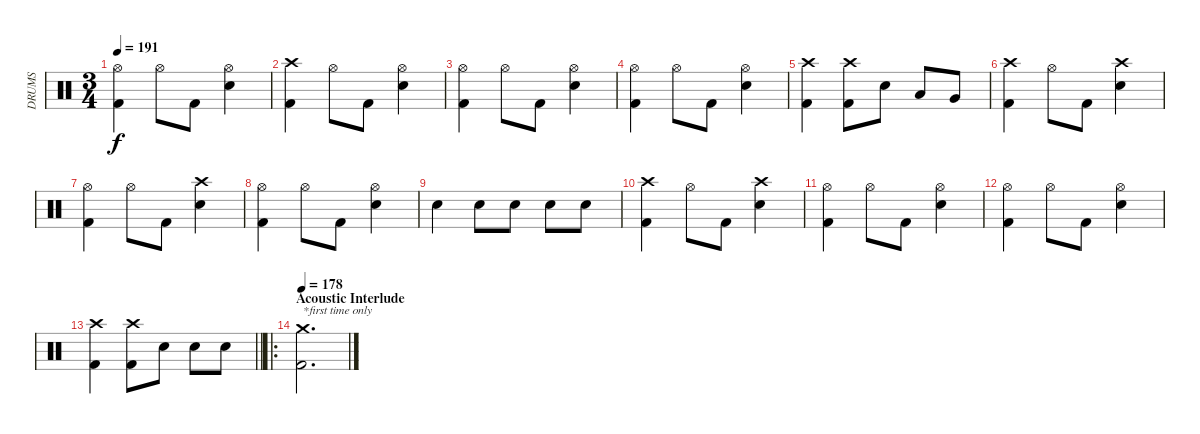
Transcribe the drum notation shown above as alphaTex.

\track ("DRUMS" "DRUMS") {instrument percussion}
\staff {score}
\articulation defaults
\ts (3 4)
\tempo 191
\clef neutral
\ks c
("Hi-Hat (open)" "Kick (hit) 2").4{dy f} "Hi-Hat (open)".8 "Kick (hit) 2".8 ("Hi-Hat (open)" "Snare (hit) 2").4 |
("Crash high (hit)" "Kick (hit) 2").4 "Hi-Hat (open)".8 "Kick (hit) 2".8 ("Hi-Hat (open)" "Snare (hit) 2").4 |
("Hi-Hat (open)" "Kick (hit) 2").4 "Hi-Hat (open)".8 "Kick (hit) 2".8 ("Hi-Hat (open)" "Snare (hit) 2").4 |
("Hi-Hat (open)" "Kick (hit) 2").4 "Hi-Hat (open)".8 "Kick (hit) 2".8 ("Hi-Hat (open)" "Snare (hit) 2").4 |
("Crash high (hit)" "Kick (hit) 2").4 ("Crash high (hit)" "Kick (hit) 2").8 "Snare (hit) 2".8 "Low Tom (hit)".8 "Very Low Tom (hit)".8 |
("Crash high (hit)" "Kick (hit) 2").4 "Hi-Hat (open)".8 "Kick (hit) 2".8 ("Crash high (hit)" "Snare (hit) 2").4 |
("Hi-Hat (open)" "Kick (hit) 2").4 "Hi-Hat (open)".8 "Kick (hit) 2".8 ("Crash high (hit)" "Snare (hit) 2").4 |
("Hi-Hat (open)" "Kick (hit) 2").4 "Hi-Hat (open)".8 "Kick (hit) 2".8 ("Hi-Hat (open)" "Snare (hit) 2").4 |
"Snare (hit) 2".4 "Snare (hit) 2".8 "Snare (hit) 2".8 "Snare (hit) 2".8 "Snare (hit) 2".8 |
("Crash high (hit)" "Kick (hit) 2").4 "Hi-Hat (open)".8 "Kick (hit) 2".8 ("Crash high (hit)" "Snare (hit) 2").4 |
("Hi-Hat (open)" "Kick (hit) 2").4 "Hi-Hat (open)".8 "Kick (hit) 2".8 ("Hi-Hat (open)" "Snare (hit) 2").4 |
("Hi-Hat (open)" "Kick (hit) 2").4 "Hi-Hat (open)".8 "Kick (hit) 2".8 ("Hi-Hat (open)" "Snare (hit) 2").4 |
\barLineRight lightlight
("Crash high (hit)" "Kick (hit) 2").4 ("Crash high (hit)" "Kick (hit) 2").8 "Snare (hit) 2".8 "Snare (hit) 2".8 "Snare (hit) 2".8 |
\ro
\section ("" "Acoustic Interlude")
\tempo 178
("Crash medium (hit)" "Kick (hit) 2").2{d txt "*first time only"}
